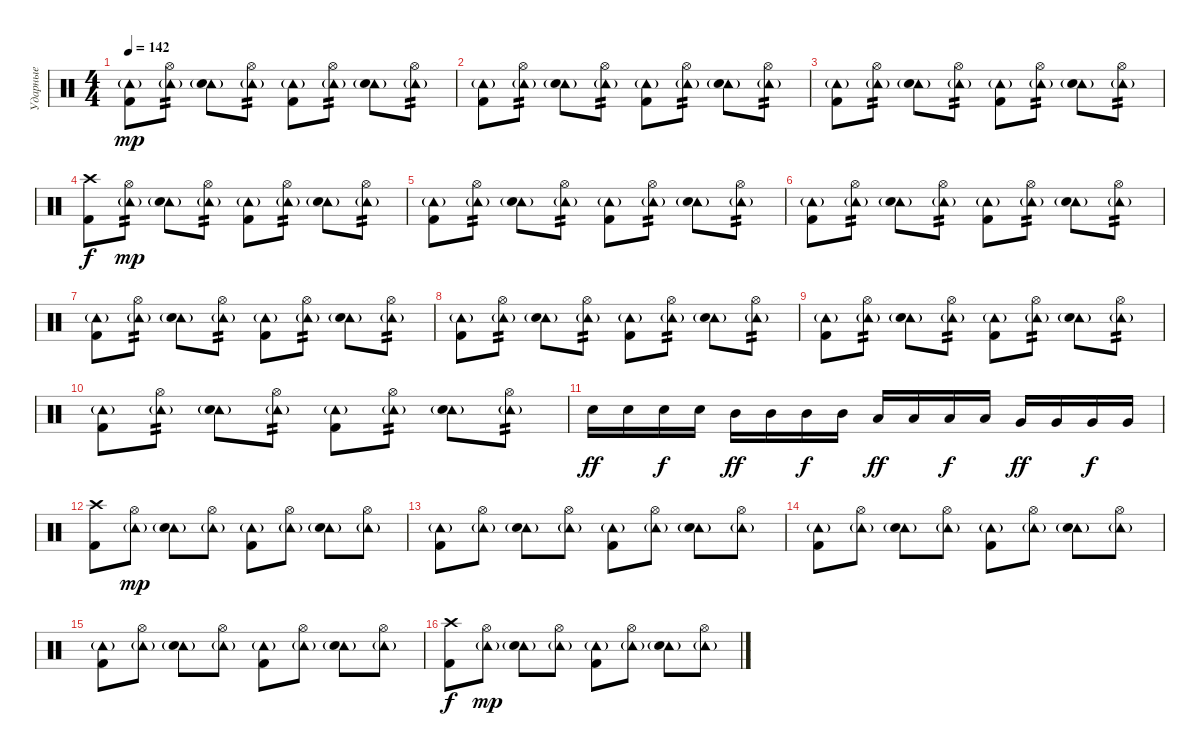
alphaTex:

\track ("Ударные" "Ударные") {instrument percussion}
\staff {score}
\articulation defaults
\ts (4 4)
\tempo 142
\clef neutral
\ks c
("Tambourine (hit)"{g} "Kick (hit) 2").8{dy mp} ("Tambourine (hit)"{g} "Hi-Hat (open)").8{tp 2} ("Tambourine (hit)"{g} "Electric Snare (hit)").8 ("Tambourine (hit)"{g} "Hi-Hat (open)").8{tp 2} ("Tambourine (hit)"{g} "Kick (hit) 2").8 ("Tambourine (hit)"{g} "Hi-Hat (open)").8{tp 2} ("Tambourine (hit)"{g} "Electric Snare (hit)").8 ("Tambourine (hit)"{g} "Hi-Hat (open)").8{tp 2} |
("Tambourine (hit)"{g} "Kick (hit) 2").8 ("Tambourine (hit)"{g} "Hi-Hat (open)").8{tp 2} ("Tambourine (hit)"{g} "Electric Snare (hit)").8 ("Tambourine (hit)"{g} "Hi-Hat (open)").8{tp 2} ("Tambourine (hit)"{g} "Kick (hit) 2").8 ("Tambourine (hit)"{g} "Hi-Hat (open)").8{tp 2} ("Tambourine (hit)"{g} "Electric Snare (hit)").8 ("Tambourine (hit)"{g} "Hi-Hat (open)").8{tp 2} |
("Tambourine (hit)"{g} "Kick (hit) 2").8 ("Tambourine (hit)"{g} "Hi-Hat (open)").8{tp 2} ("Tambourine (hit)"{g} "Electric Snare (hit)").8 ("Tambourine (hit)"{g} "Hi-Hat (open)").8{tp 2} ("Tambourine (hit)"{g} "Kick (hit) 2").8 ("Tambourine (hit)"{g} "Hi-Hat (open)").8{tp 2} ("Tambourine (hit)"{g} "Electric Snare (hit)").8 ("Tambourine (hit)"{g} "Hi-Hat (open)").8{tp 2} |
("Crash high (hit)" "Kick (hit) 2").8{dy f} ("Tambourine (hit)"{g} "Hi-Hat (open)").8{tp 2 dy mp} ("Tambourine (hit)"{g} "Electric Snare (hit)").8 ("Tambourine (hit)"{g} "Hi-Hat (open)").8{tp 2} ("Tambourine (hit)"{g} "Kick (hit) 2").8 ("Tambourine (hit)"{g} "Hi-Hat (open)").8{tp 2} ("Tambourine (hit)"{g} "Electric Snare (hit)").8 ("Tambourine (hit)"{g} "Hi-Hat (open)").8{tp 2} |
("Tambourine (hit)"{g} "Kick (hit) 2").8 ("Tambourine (hit)"{g} "Hi-Hat (open)").8{tp 2} ("Tambourine (hit)"{g} "Electric Snare (hit)").8 ("Tambourine (hit)"{g} "Hi-Hat (open)").8{tp 2} ("Tambourine (hit)"{g} "Kick (hit) 2").8 ("Tambourine (hit)"{g} "Hi-Hat (open)").8{tp 2} ("Tambourine (hit)"{g} "Electric Snare (hit)").8 ("Tambourine (hit)"{g} "Hi-Hat (open)").8{tp 2} |
("Tambourine (hit)"{g} "Kick (hit) 2").8 ("Tambourine (hit)"{g} "Hi-Hat (open)").8{tp 2} ("Tambourine (hit)"{g} "Electric Snare (hit)").8 ("Tambourine (hit)"{g} "Hi-Hat (open)").8{tp 2} ("Tambourine (hit)"{g} "Kick (hit) 2").8 ("Tambourine (hit)"{g} "Hi-Hat (open)").8{tp 2} ("Tambourine (hit)"{g} "Electric Snare (hit)").8 ("Tambourine (hit)"{g} "Hi-Hat (open)").8{tp 2} |
("Tambourine (hit)"{g} "Kick (hit) 2").8 ("Tambourine (hit)"{g} "Hi-Hat (open)").8{tp 2} ("Tambourine (hit)"{g} "Electric Snare (hit)").8 ("Tambourine (hit)"{g} "Hi-Hat (open)").8{tp 2} ("Tambourine (hit)"{g} "Kick (hit) 2").8 ("Tambourine (hit)"{g} "Hi-Hat (open)").8{tp 2} ("Tambourine (hit)"{g} "Electric Snare (hit)").8 ("Tambourine (hit)"{g} "Hi-Hat (open)").8{tp 2} |
("Tambourine (hit)"{g} "Kick (hit) 2").8 ("Tambourine (hit)"{g} "Hi-Hat (open)").8{tp 2} ("Tambourine (hit)"{g} "Electric Snare (hit)").8 ("Tambourine (hit)"{g} "Hi-Hat (open)").8{tp 2} ("Tambourine (hit)"{g} "Kick (hit) 2").8 ("Tambourine (hit)"{g} "Hi-Hat (open)").8{tp 2} ("Tambourine (hit)"{g} "Electric Snare (hit)").8 ("Tambourine (hit)"{g} "Hi-Hat (open)").8{tp 2} |
("Tambourine (hit)"{g} "Kick (hit) 2").8 ("Tambourine (hit)"{g} "Hi-Hat (open)").8{tp 2} ("Tambourine (hit)"{g} "Electric Snare (hit)").8 ("Tambourine (hit)"{g} "Hi-Hat (open)").8{tp 2} ("Tambourine (hit)"{g} "Kick (hit) 2").8 ("Tambourine (hit)"{g} "Hi-Hat (open)").8{tp 2} ("Tambourine (hit)"{g} "Electric Snare (hit)").8 ("Tambourine (hit)"{g} "Hi-Hat (open)").8{tp 2} |
("Tambourine (hit)"{g} "Kick (hit) 2").8 ("Tambourine (hit)"{g} "Hi-Hat (open)").8{tp 2} ("Tambourine (hit)"{g} "Electric Snare (hit)").8 ("Tambourine (hit)"{g} "Hi-Hat (open)").8{tp 2} ("Tambourine (hit)"{g} "Kick (hit) 2").8 ("Tambourine (hit)"{g} "Hi-Hat (open)").8{tp 2} ("Tambourine (hit)"{g} "Electric Snare (hit)").8 ("Tambourine (hit)"{g} "Hi-Hat (open)").8{tp 2} |
"Electric Snare (hit)".16{dy ff} "Electric Snare (hit)".16 "Electric Snare (hit)".16{dy f} "Electric Snare (hit)".16 "Mid Tom (hit)".16{dy ff} "Mid Tom (hit)".16 "Mid Tom (hit)".16{dy f} "Mid Tom (hit)".16 "Low Tom (hit)".16{dy ff} "Low Tom (hit)".16 "Low Tom (hit)".16{dy f} "Low Tom (hit)".16 "Very Low Tom (hit)".16{dy ff} "Very Low Tom (hit)".16 "Very Low Tom (hit)".16{dy f} "Very Low Tom (hit)".16 |
("Crash high (hit)" "Kick (hit) 2").8 ("Tambourine (hit)"{g} "Hi-Hat (open)").8{dy mp} ("Tambourine (hit)"{g} "Electric Snare (hit)").8 ("Tambourine (hit)"{g} "Hi-Hat (open)").8 ("Tambourine (hit)"{g} "Kick (hit) 2").8 ("Tambourine (hit)"{g} "Hi-Hat (open)").8 ("Tambourine (hit)"{g} "Electric Snare (hit)").8 ("Tambourine (hit)"{g} "Hi-Hat (open)").8 |
("Tambourine (hit)"{g} "Kick (hit) 2").8 ("Tambourine (hit)"{g} "Hi-Hat (open)").8 ("Tambourine (hit)"{g} "Electric Snare (hit)").8 ("Tambourine (hit)"{g} "Hi-Hat (open)").8 ("Tambourine (hit)"{g} "Kick (hit) 2").8 ("Tambourine (hit)"{g} "Hi-Hat (open)").8 ("Tambourine (hit)"{g} "Electric Snare (hit)").8 ("Tambourine (hit)"{g} "Hi-Hat (open)").8 |
("Tambourine (hit)"{g} "Kick (hit) 2").8 ("Tambourine (hit)"{g} "Hi-Hat (open)").8 ("Tambourine (hit)"{g} "Electric Snare (hit)").8 ("Tambourine (hit)"{g} "Hi-Hat (open)").8 ("Tambourine (hit)"{g} "Kick (hit) 2").8 ("Tambourine (hit)"{g} "Hi-Hat (open)").8 ("Tambourine (hit)"{g} "Electric Snare (hit)").8 ("Tambourine (hit)"{g} "Hi-Hat (open)").8 |
("Tambourine (hit)"{g} "Kick (hit) 2").8 ("Tambourine (hit)"{g} "Hi-Hat (open)").8 ("Tambourine (hit)"{g} "Electric Snare (hit)").8 ("Tambourine (hit)"{g} "Hi-Hat (open)").8 ("Tambourine (hit)"{g} "Kick (hit) 2").8 ("Tambourine (hit)"{g} "Hi-Hat (open)").8 ("Tambourine (hit)"{g} "Electric Snare (hit)").8 ("Tambourine (hit)"{g} "Hi-Hat (open)").8 |
("Crash high (hit)" "Kick (hit) 2").8{dy f} ("Tambourine (hit)"{g} "Hi-Hat (open)").8{dy mp} ("Tambourine (hit)"{g} "Electric Snare (hit)").8 ("Tambourine (hit)"{g} "Hi-Hat (open)").8 ("Tambourine (hit)"{g} "Kick (hit) 2").8 ("Tambourine (hit)"{g} "Hi-Hat (open)").8 ("Tambourine (hit)"{g} "Electric Snare (hit)").8 ("Tambourine (hit)"{g} "Hi-Hat (open)").8
